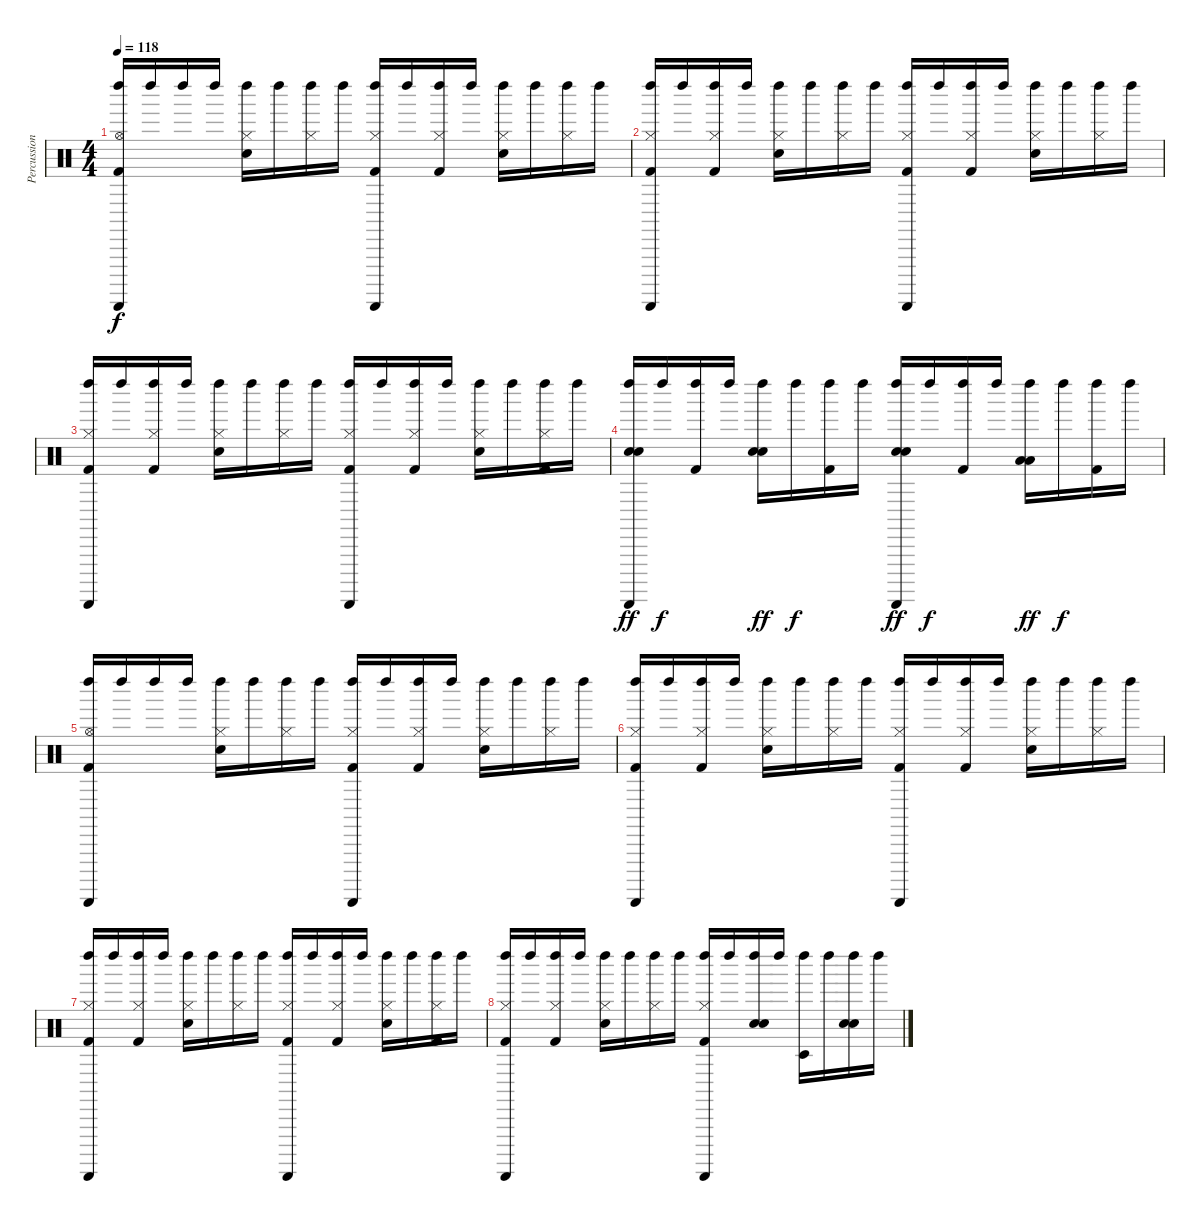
\track ("Percussions" "Percussion") {instrument percussion}
\staff {score}
\articulation defaults
\ts (4 4)
\tempo 118
\clef neutral
\ks c
("Guiro (scrap-return)" "Left Maraca (hit)" "Hi-Hat (open)" "Kick (hit) 2").16{dy f} "Left Maraca (hit)".16 "Left Maraca (hit)".16 "Left Maraca (hit)".16 ("Left Maraca (hit)" "Hi-Hat (closed)" "Snare (hit) 2").16 "Left Maraca (hit)".16 ("Left Maraca (hit)" "Hi-Hat (closed)").16 "Left Maraca (hit)".16 ("Guiro (scrap-return)" "Left Maraca (hit)" "Hi-Hat (closed)" "Kick (hit) 2").16 "Left Maraca (hit)".16 ("Left Maraca (hit)" "Hi-Hat (closed)" "Kick (hit) 2").16 "Left Maraca (hit)".16 ("Left Maraca (hit)" "Hi-Hat (closed)" "Snare (hit) 2").16 "Left Maraca (hit)".16 ("Left Maraca (hit)" "Hi-Hat (closed)").16 "Left Maraca (hit)".16 |
("Guiro (scrap-return)" "Left Maraca (hit)" "Hi-Hat (closed)" "Kick (hit) 2").16 "Left Maraca (hit)".16 ("Left Maraca (hit)" "Hi-Hat (closed)" "Kick (hit) 2").16 "Left Maraca (hit)".16 ("Left Maraca (hit)" "Hi-Hat (closed)" "Snare (hit) 2").16 "Left Maraca (hit)".16 ("Left Maraca (hit)" "Hi-Hat (closed)").16 "Left Maraca (hit)".16 ("Guiro (scrap-return)" "Left Maraca (hit)" "Hi-Hat (closed)" "Kick (hit) 2").16 "Left Maraca (hit)".16 ("Left Maraca (hit)" "Hi-Hat (closed)" "Kick (hit) 2").16 "Left Maraca (hit)".16 ("Left Maraca (hit)" "Hi-Hat (closed)" "Snare (hit) 2").16 "Left Maraca (hit)".16 ("Left Maraca (hit)" "Hi-Hat (closed)").16 "Left Maraca (hit)".16 |
("Guiro (scrap-return)" "Left Maraca (hit)" "Hi-Hat (closed)" "Kick (hit) 2").16 "Left Maraca (hit)".16 ("Left Maraca (hit)" "Hi-Hat (closed)" "Kick (hit) 2").16 "Left Maraca (hit)".16 ("Left Maraca (hit)" "Hi-Hat (closed)" "Snare (hit) 2").16 "Left Maraca (hit)".16 ("Left Maraca (hit)" "Hi-Hat (closed)").16 "Left Maraca (hit)".16 ("Guiro (scrap-return)" "Left Maraca (hit)" "Hi-Hat (closed)" "Kick (hit) 2").16 "Left Maraca (hit)".16 ("Left Maraca (hit)" "Hi-Hat (closed)" "Kick (hit) 2").16 "Left Maraca (hit)".16 ("Left Maraca (hit)" "Hi-Hat (closed)" "Snare (hit) 2").16 "Left Maraca (hit)".16 ("Left Maraca (hit)" "Hi-Hat (closed)" "Kick (hit) 2").16 "Left Maraca (hit)".16 |
("Guiro (scrap-return)" "Left Maraca (hit)" "Snare (hit) 2" "Snare (hit) 2").16{dy ff} "Left Maraca (hit)".16{dy f} ("Left Maraca (hit)" "Kick (hit) 2").16 "Left Maraca (hit)".16 ("Left Maraca (hit)" "Snare (hit) 2" "Snare (hit) 2").16{dy ff} "Left Maraca (hit)".16{dy f} ("Left Maraca (hit)" "Kick (hit) 2").16 "Left Maraca (hit)".16 ("Guiro (scrap-return)" "Left Maraca (hit)" "Snare (hit) 2" "Snare (hit) 2").16{dy ff} "Left Maraca (hit)".16{dy f} ("Left Maraca (hit)" "Kick (hit) 2").16 "Left Maraca (hit)".16 ("Left Maraca (hit)" "Low Tom (hit)" "Low Tom (hit)").16{dy ff} "Left Maraca (hit)".16{dy f} ("Left Maraca (hit)" "Kick (hit) 2").16 "Left Maraca (hit)".16 |
("Guiro (scrap-return)" "Left Maraca (hit)" "Hi-Hat (open)" "Kick (hit) 2").16 "Left Maraca (hit)".16 "Left Maraca (hit)".16 "Left Maraca (hit)".16 ("Left Maraca (hit)" "Hi-Hat (closed)" "Snare (hit) 2").16 "Left Maraca (hit)".16 ("Left Maraca (hit)" "Hi-Hat (closed)").16 "Left Maraca (hit)".16 ("Guiro (scrap-return)" "Left Maraca (hit)" "Hi-Hat (closed)" "Kick (hit) 2").16 "Left Maraca (hit)".16 ("Left Maraca (hit)" "Hi-Hat (closed)" "Kick (hit) 2").16 "Left Maraca (hit)".16 ("Left Maraca (hit)" "Hi-Hat (closed)" "Snare (hit) 2").16 "Left Maraca (hit)".16 ("Left Maraca (hit)" "Hi-Hat (closed)").16 "Left Maraca (hit)".16 |
("Guiro (scrap-return)" "Left Maraca (hit)" "Hi-Hat (closed)" "Kick (hit) 2").16 "Left Maraca (hit)".16 ("Left Maraca (hit)" "Hi-Hat (closed)" "Kick (hit) 2").16 "Left Maraca (hit)".16 ("Left Maraca (hit)" "Hi-Hat (closed)" "Snare (hit) 2").16 "Left Maraca (hit)".16 ("Left Maraca (hit)" "Hi-Hat (closed)").16 "Left Maraca (hit)".16 ("Guiro (scrap-return)" "Left Maraca (hit)" "Hi-Hat (closed)" "Kick (hit) 2").16 "Left Maraca (hit)".16 ("Left Maraca (hit)" "Hi-Hat (closed)" "Kick (hit) 2").16 "Left Maraca (hit)".16 ("Left Maraca (hit)" "Hi-Hat (closed)" "Snare (hit) 2").16 "Left Maraca (hit)".16 ("Left Maraca (hit)" "Hi-Hat (closed)").16 "Left Maraca (hit)".16 |
("Guiro (scrap-return)" "Left Maraca (hit)" "Hi-Hat (closed)" "Kick (hit) 2").16 "Left Maraca (hit)".16 ("Left Maraca (hit)" "Hi-Hat (closed)" "Kick (hit) 2").16 "Left Maraca (hit)".16 ("Left Maraca (hit)" "Hi-Hat (closed)" "Snare (hit) 2").16 "Left Maraca (hit)".16 ("Left Maraca (hit)" "Hi-Hat (closed)").16 "Left Maraca (hit)".16 ("Guiro (scrap-return)" "Left Maraca (hit)" "Hi-Hat (closed)" "Kick (hit) 2").16 "Left Maraca (hit)".16 ("Left Maraca (hit)" "Hi-Hat (closed)" "Kick (hit) 2").16 "Left Maraca (hit)".16 ("Left Maraca (hit)" "Hi-Hat (closed)" "Snare (hit) 2").16 "Left Maraca (hit)".16 ("Left Maraca (hit)" "Hi-Hat (closed)" "Kick (hit) 2").16 "Left Maraca (hit)".16 |
("Guiro (scrap-return)" "Left Maraca (hit)" "Hi-Hat (closed)" "Kick (hit) 2").16 "Left Maraca (hit)".16 ("Left Maraca (hit)" "Hi-Hat (closed)" "Kick (hit) 2").16 "Left Maraca (hit)".16 ("Left Maraca (hit)" "Hi-Hat (closed)" "Snare (hit) 2").16 "Left Maraca (hit)".16 ("Left Maraca (hit)" "Hi-Hat (closed)").16 "Left Maraca (hit)".16 ("Guiro (scrap-return)" "Left Maraca (hit)" "Hi-Hat (closed)" "Kick (hit) 2").16 "Left Maraca (hit)".16 ("Left Maraca (hit)" "Snare (hit) 2" "Snare (hit) 2").16 "Left Maraca (hit)".16 ("Left Maraca (hit)" "Timbale low (hit)").16 "Left Maraca (hit)".16 ("Left Maraca (hit)" "Snare (hit) 2" "Snare (hit) 2").16 "Left Maraca (hit)".16
